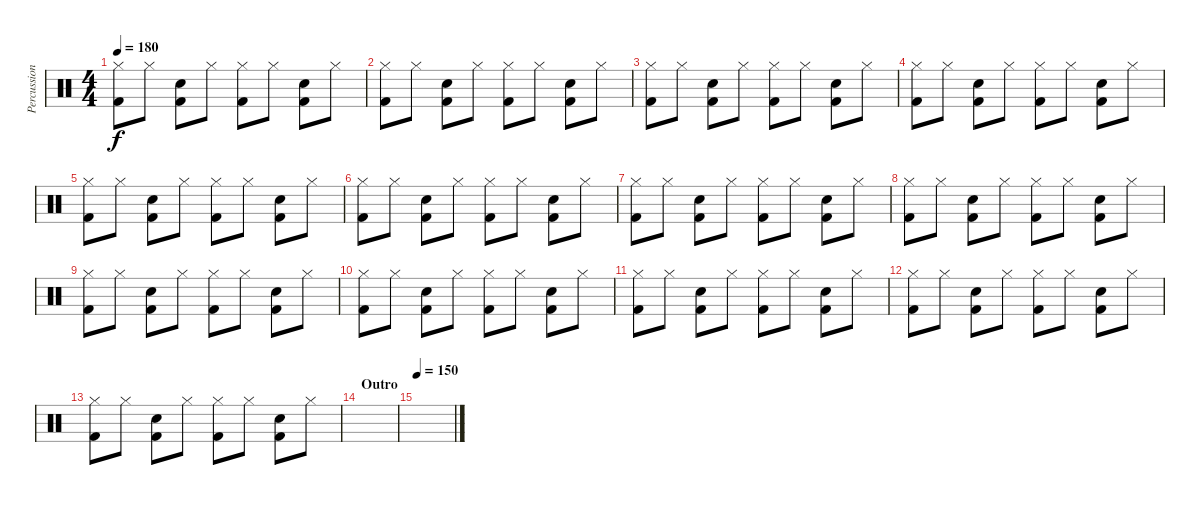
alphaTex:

\track ("Percussion" "Percussion") {instrument percussion}
\staff {score}
\articulation defaults
\ts (4 4)
\tempo 180
\clef neutral
\ks c
("Kick (hit) 2" "Hi-Hat (closed)").8{dy f} "Hi-Hat (closed)".8 ("Kick (hit) 2" "Snare (hit) 2").8 "Hi-Hat (closed)".8 ("Kick (hit) 2" "Hi-Hat (closed)").8 "Hi-Hat (closed)".8 ("Kick (hit) 2" "Electric Snare (hit)").8 "Hi-Hat (closed)".8 |
("Kick (hit) 2" "Hi-Hat (closed)").8 "Hi-Hat (closed)".8 ("Kick (hit) 2" "Snare (hit) 2").8 "Hi-Hat (closed)".8 ("Kick (hit) 2" "Hi-Hat (closed)").8 "Hi-Hat (closed)".8 ("Kick (hit) 2" "Electric Snare (hit)").8 "Hi-Hat (closed)".8 |
("Kick (hit) 2" "Hi-Hat (closed)").8 "Hi-Hat (closed)".8 ("Kick (hit) 2" "Snare (hit) 2").8 "Hi-Hat (closed)".8 ("Kick (hit) 2" "Hi-Hat (closed)").8 "Hi-Hat (closed)".8 ("Kick (hit) 2" "Electric Snare (hit)").8 "Hi-Hat (closed)".8 |
("Kick (hit) 2" "Hi-Hat (closed)").8 "Hi-Hat (closed)".8 ("Kick (hit) 2" "Snare (hit) 2").8 "Hi-Hat (closed)".8 ("Kick (hit) 2" "Hi-Hat (closed)").8 "Hi-Hat (closed)".8 ("Kick (hit) 2" "Electric Snare (hit)").8 "Hi-Hat (closed)".8 |
("Kick (hit) 2" "Hi-Hat (closed)").8 "Hi-Hat (closed)".8 ("Kick (hit) 2" "Snare (hit) 2").8 "Hi-Hat (closed)".8 ("Kick (hit) 2" "Hi-Hat (closed)").8 "Hi-Hat (closed)".8 ("Kick (hit) 2" "Electric Snare (hit)").8 "Hi-Hat (closed)".8 |
("Kick (hit) 2" "Hi-Hat (closed)").8 "Hi-Hat (closed)".8 ("Kick (hit) 2" "Snare (hit) 2").8 "Hi-Hat (closed)".8 ("Kick (hit) 2" "Hi-Hat (closed)").8 "Hi-Hat (closed)".8 ("Kick (hit) 2" "Electric Snare (hit)").8 "Hi-Hat (closed)".8 |
("Kick (hit) 2" "Hi-Hat (closed)").8 "Hi-Hat (closed)".8 ("Kick (hit) 2" "Snare (hit) 2").8 "Hi-Hat (closed)".8 ("Kick (hit) 2" "Hi-Hat (closed)").8 "Hi-Hat (closed)".8 ("Kick (hit) 2" "Electric Snare (hit)").8 "Hi-Hat (closed)".8 |
("Kick (hit) 2" "Hi-Hat (closed)").8 "Hi-Hat (closed)".8 ("Kick (hit) 2" "Snare (hit) 2").8 "Hi-Hat (closed)".8 ("Kick (hit) 2" "Hi-Hat (closed)").8 "Hi-Hat (closed)".8 ("Kick (hit) 2" "Electric Snare (hit)").8 "Hi-Hat (closed)".8 |
("Kick (hit) 2" "Hi-Hat (closed)").8 "Hi-Hat (closed)".8 ("Kick (hit) 2" "Snare (hit) 2").8 "Hi-Hat (closed)".8 ("Kick (hit) 2" "Hi-Hat (closed)").8 "Hi-Hat (closed)".8 ("Kick (hit) 2" "Electric Snare (hit)").8 "Hi-Hat (closed)".8 |
("Kick (hit) 2" "Hi-Hat (closed)").8 "Hi-Hat (closed)".8 ("Kick (hit) 2" "Snare (hit) 2").8 "Hi-Hat (closed)".8 ("Kick (hit) 2" "Hi-Hat (closed)").8 "Hi-Hat (closed)".8 ("Kick (hit) 2" "Electric Snare (hit)").8 "Hi-Hat (closed)".8 |
("Kick (hit) 2" "Hi-Hat (closed)").8 "Hi-Hat (closed)".8 ("Kick (hit) 2" "Snare (hit) 2").8 "Hi-Hat (closed)".8 ("Kick (hit) 2" "Hi-Hat (closed)").8 "Hi-Hat (closed)".8 ("Kick (hit) 2" "Electric Snare (hit)").8 "Hi-Hat (closed)".8 |
("Kick (hit) 2" "Hi-Hat (closed)").8 "Hi-Hat (closed)".8 ("Kick (hit) 2" "Snare (hit) 2").8 "Hi-Hat (closed)".8 ("Kick (hit) 2" "Hi-Hat (closed)").8 "Hi-Hat (closed)".8 ("Kick (hit) 2" "Electric Snare (hit)").8 "Hi-Hat (closed)".8 |
("Kick (hit) 2" "Hi-Hat (closed)").8 "Hi-Hat (closed)".8 ("Kick (hit) 2" "Snare (hit) 2").8 "Hi-Hat (closed)".8 ("Kick (hit) 2" "Hi-Hat (closed)").8 "Hi-Hat (closed)".8 ("Kick (hit) 2" "Electric Snare (hit)").8 "Hi-Hat (closed)".8 |
\section ("" "Outro")
|
\tempo 150
